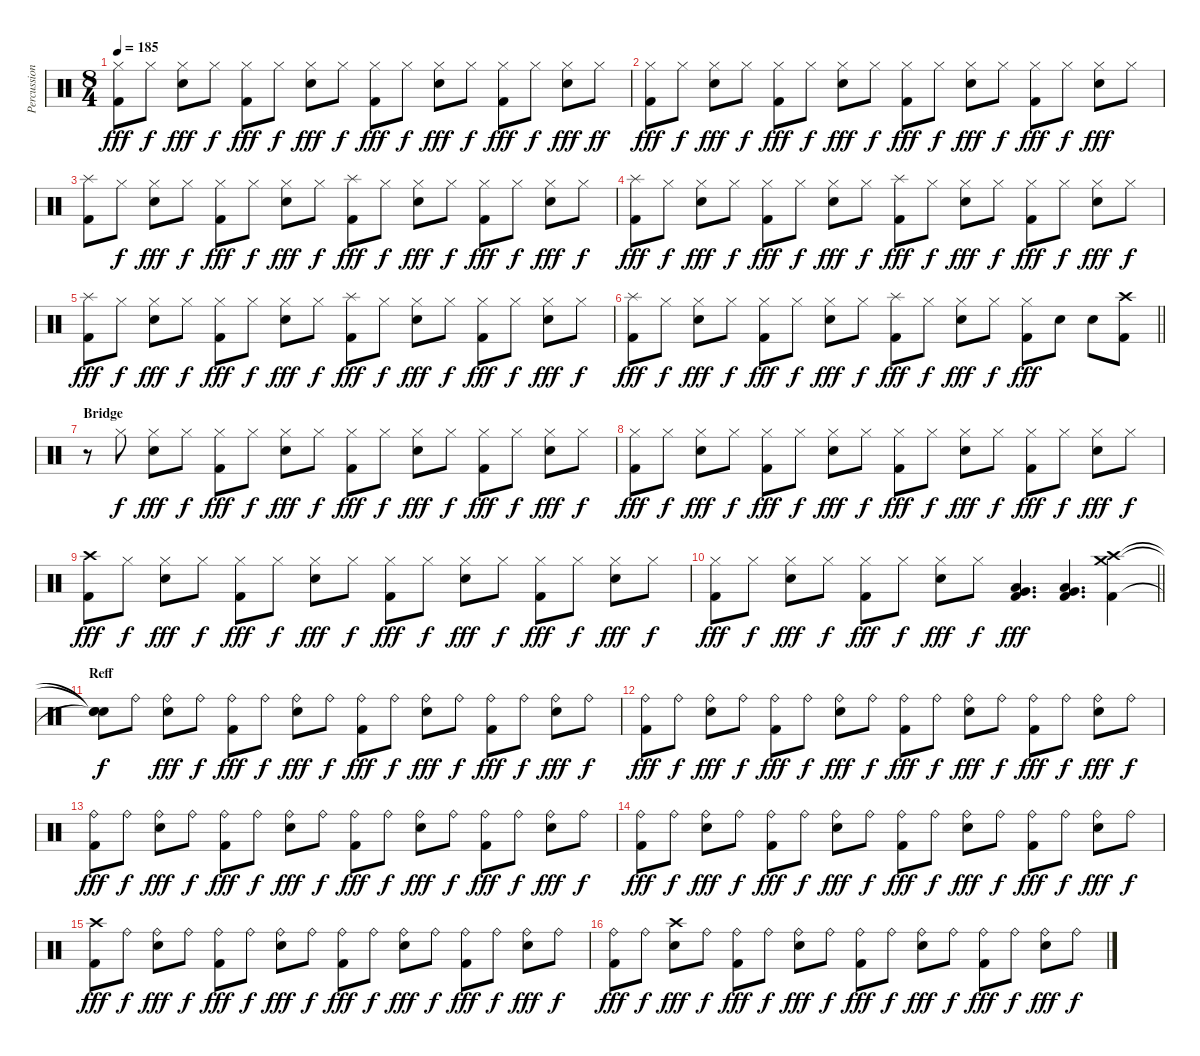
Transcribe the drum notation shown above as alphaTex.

\track ("Percussion" "Percussion") {instrument percussion}
\staff {score}
\articulation defaults
\ts (8 4)
\tempo 185
\clef neutral
\ks c
("Hi-Hat (closed)" "Kick (hit) 2").8{dy fff} "Hi-Hat (closed)".8{dy f} ("Hi-Hat (closed)" "Electric Snare (hit)").8{dy fff} "Hi-Hat (closed)".8{dy f} ("Hi-Hat (closed)" "Kick (hit) 2").8{dy fff} "Hi-Hat (closed)".8{dy f} ("Hi-Hat (closed)" "Electric Snare (hit)").8{dy fff} "Hi-Hat (closed)".8{dy f} ("Hi-Hat (closed)" "Kick (hit) 2").8{dy fff} "Hi-Hat (closed)".8{dy f} ("Hi-Hat (closed)" "Electric Snare (hit)").8{dy fff} "Hi-Hat (closed)".8{dy f} ("Hi-Hat (closed)" "Kick (hit) 2").8{dy fff} "Hi-Hat (closed)".8{dy f} ("Hi-Hat (closed)" "Electric Snare (hit)").8{dy fff} "Hi-Hat (closed)".8{dy ff} |
("Hi-Hat (closed)" "Kick (hit) 2").8{dy fff} "Hi-Hat (closed)".8{dy f} ("Hi-Hat (closed)" "Electric Snare (hit)").8{dy fff} "Hi-Hat (closed)".8{dy f} ("Hi-Hat (closed)" "Kick (hit) 2").8{dy fff} "Hi-Hat (closed)".8{dy f} ("Hi-Hat (closed)" "Electric Snare (hit)").8{dy fff} "Hi-Hat (closed)".8{dy f} ("Hi-Hat (closed)" "Kick (hit) 2").8{dy fff} "Hi-Hat (closed)".8{dy f} ("Hi-Hat (closed)" "Electric Snare (hit)").8{dy fff} "Hi-Hat (closed)".8{dy f} ("Hi-Hat (closed)" "Kick (hit) 2").8{dy fff} "Hi-Hat (closed)".8{dy f} ("Hi-Hat (closed)" "Electric Snare (hit)").8{dy fff} "Hi-Hat (closed)".8 |
("Splash (hit)" "Kick (hit) 2").8 "Hi-Hat (closed)".8{dy f} ("Hi-Hat (closed)" "Electric Snare (hit)").8{dy fff} "Hi-Hat (closed)".8{dy f} ("Hi-Hat (closed)" "Kick (hit) 2").8{dy fff} "Hi-Hat (closed)".8{dy f} ("Hi-Hat (closed)" "Electric Snare (hit)").8{dy fff} "Hi-Hat (closed)".8{dy f} ("Splash (hit)" "Kick (hit) 2").8{dy fff} "Hi-Hat (closed)".8{dy f} ("Hi-Hat (closed)" "Electric Snare (hit)").8{dy fff} "Hi-Hat (closed)".8{dy f} ("Hi-Hat (closed)" "Kick (hit) 2").8{dy fff} "Hi-Hat (closed)".8{dy f} ("Hi-Hat (closed)" "Electric Snare (hit)").8{dy fff} "Hi-Hat (closed)".8{dy f} |
("Splash (hit)" "Kick (hit) 2").8{dy fff} "Hi-Hat (closed)".8{dy f} ("Hi-Hat (closed)" "Electric Snare (hit)").8{dy fff} "Hi-Hat (closed)".8{dy f} ("Hi-Hat (closed)" "Kick (hit) 2").8{dy fff} "Hi-Hat (closed)".8{dy f} ("Hi-Hat (closed)" "Electric Snare (hit)").8{dy fff} "Hi-Hat (closed)".8{dy f} ("Splash (hit)" "Kick (hit) 2").8{dy fff} "Hi-Hat (closed)".8{dy f} ("Hi-Hat (closed)" "Electric Snare (hit)").8{dy fff} "Hi-Hat (closed)".8{dy f} ("Hi-Hat (closed)" "Kick (hit) 2").8{dy fff} "Hi-Hat (closed)".8{dy f} ("Hi-Hat (closed)" "Electric Snare (hit)").8{dy fff} "Hi-Hat (closed)".8{dy f} |
("Splash (hit)" "Kick (hit) 2").8{dy fff} "Hi-Hat (closed)".8{dy f} ("Hi-Hat (closed)" "Electric Snare (hit)").8{dy fff} "Hi-Hat (closed)".8{dy f} ("Hi-Hat (closed)" "Kick (hit) 2").8{dy fff} "Hi-Hat (closed)".8{dy f} ("Hi-Hat (closed)" "Electric Snare (hit)").8{dy fff} "Hi-Hat (closed)".8{dy f} ("Splash (hit)" "Kick (hit) 2").8{dy fff} "Hi-Hat (closed)".8{dy f} ("Hi-Hat (closed)" "Electric Snare (hit)").8{dy fff} "Hi-Hat (closed)".8{dy f} ("Hi-Hat (closed)" "Kick (hit) 2").8{dy fff} "Hi-Hat (closed)".8{dy f} ("Hi-Hat (closed)" "Electric Snare (hit)").8{dy fff} "Hi-Hat (closed)".8{dy f} |
\barLineRight lightlight
("Splash (hit)" "Kick (hit) 2").8{dy fff} "Hi-Hat (closed)".8{dy f} ("Hi-Hat (closed)" "Electric Snare (hit)").8{dy fff} "Hi-Hat (closed)".8{dy f} ("Hi-Hat (closed)" "Kick (hit) 2").8{dy fff} "Hi-Hat (closed)".8{dy f} ("Hi-Hat (closed)" "Electric Snare (hit)").8{dy fff} "Hi-Hat (closed)".8{dy f} ("Splash (hit)" "Kick (hit) 2").8{dy fff} "Hi-Hat (closed)".8{dy f} ("Hi-Hat (closed)" "Electric Snare (hit)").8{dy fff} "Hi-Hat (closed)".8{dy f} ("Hi-Hat (closed)" "Kick (hit) 2").8{dy fff} "Electric Snare (hit)".8 "Electric Snare (hit)".8 ("Crash high (hit)" "Kick (hit) 2").8 |
\section ("" "Bridge")
r.8 "Hi-Hat (closed)".8{dy f} ("Hi-Hat (closed)" "Electric Snare (hit)").8{dy fff} "Hi-Hat (closed)".8{dy f} ("Hi-Hat (closed)" "Kick (hit) 2").8{dy fff} "Hi-Hat (closed)".8{dy f} ("Hi-Hat (closed)" "Electric Snare (hit)").8{dy fff} "Hi-Hat (closed)".8{dy f} ("Hi-Hat (closed)" "Kick (hit) 2").8{dy fff} "Hi-Hat (closed)".8{dy f} ("Hi-Hat (closed)" "Electric Snare (hit)").8{dy fff} "Hi-Hat (closed)".8{dy f} ("Hi-Hat (closed)" "Kick (hit) 2").8{dy fff} "Hi-Hat (closed)".8{dy f} ("Hi-Hat (closed)" "Electric Snare (hit)").8{dy fff} "Hi-Hat (closed)".8{dy f} |
("Hi-Hat (closed)" "Kick (hit) 2").8{dy fff} "Hi-Hat (closed)".8{dy f} ("Hi-Hat (closed)" "Electric Snare (hit)").8{dy fff} "Hi-Hat (closed)".8{dy f} ("Hi-Hat (closed)" "Kick (hit) 2").8{dy fff} "Hi-Hat (closed)".8{dy f} ("Hi-Hat (closed)" "Electric Snare (hit)").8{dy fff} "Hi-Hat (closed)".8{dy f} ("Hi-Hat (closed)" "Kick (hit) 2").8{dy fff} "Hi-Hat (closed)".8{dy f} ("Hi-Hat (closed)" "Electric Snare (hit)").8{dy fff} "Hi-Hat (closed)".8{dy f} ("Hi-Hat (closed)" "Kick (hit) 2").8{dy fff} "Hi-Hat (closed)".8{dy f} ("Hi-Hat (closed)" "Electric Snare (hit)").8{dy fff} "Hi-Hat (closed)".8{dy f} |
("Crash high (hit)" "Kick (hit) 2").8{dy fff} "Hi-Hat (closed)".8{dy f} ("Hi-Hat (closed)" "Electric Snare (hit)").8{dy fff} "Hi-Hat (closed)".8{dy f} ("Hi-Hat (closed)" "Kick (hit) 2").8{dy fff} "Hi-Hat (closed)".8{dy f} ("Hi-Hat (closed)" "Electric Snare (hit)").8{dy fff} "Hi-Hat (closed)".8{dy f} ("Hi-Hat (closed)" "Kick (hit) 2").8{dy fff} "Hi-Hat (closed)".8{dy f} ("Hi-Hat (closed)" "Electric Snare (hit)").8{dy fff} "Hi-Hat (closed)".8{dy f} ("Hi-Hat (closed)" "Kick (hit) 2").8{dy fff} "Hi-Hat (closed)".8{dy f} ("Hi-Hat (closed)" "Electric Snare (hit)").8{dy fff} "Hi-Hat (closed)".8{dy f} |
\barLineRight lightlight
("Hi-Hat (closed)" "Kick (hit) 2").8{dy fff} "Hi-Hat (closed)".8{dy f} ("Hi-Hat (closed)" "Electric Snare (hit)").8{dy fff} "Hi-Hat (closed)".8{dy f} ("Hi-Hat (closed)" "Kick (hit) 2").8{dy fff} "Hi-Hat (closed)".8{dy f} ("Hi-Hat (closed)" "Electric Snare (hit)").8{dy fff} "Hi-Hat (closed)".8{dy f} ("Very Low Tom (hit)" "Low Floor Tom (hit)" "Kick (hit) 2").4{d dy fff} ("Very Low Tom (hit)" "Low Floor Tom (hit)" "Kick (hit) 2").4{d} ("Crash high (hit)" "Crash medium (hit)" "Kick (hit) 2").4 |
\section ("" "Reff")
("Snare (hit)"{t} "Snare (hit)"{t} "Snare (hit)"{t}).8{dy f} "Ride (bell)".8 ("Ride (bell)" "Electric Snare (hit)").8{dy fff} "Ride (bell)".8{dy f} ("Ride (bell)" "Kick (hit) 2").8{dy fff} "Ride (bell)".8{dy f} ("Ride (bell)" "Electric Snare (hit)").8{dy fff} "Ride (bell)".8{dy f} ("Ride (bell)" "Kick (hit) 2").8{dy fff} "Ride (bell)".8{dy f} ("Ride (bell)" "Electric Snare (hit)").8{dy fff} "Ride (bell)".8{dy f} ("Ride (bell)" "Kick (hit) 2").8{dy fff} "Ride (bell)".8{dy f} ("Ride (bell)" "Electric Snare (hit)").8{dy fff} "Ride (bell)".8{dy f} |
("Ride (bell)" "Kick (hit) 2").8{dy fff} "Ride (bell)".8{dy f} ("Ride (bell)" "Electric Snare (hit)").8{dy fff} "Ride (bell)".8{dy f} ("Ride (bell)" "Kick (hit) 2").8{dy fff} "Ride (bell)".8{dy f} ("Ride (bell)" "Electric Snare (hit)").8{dy fff} "Ride (bell)".8{dy f} ("Ride (bell)" "Kick (hit) 2").8{dy fff} "Ride (bell)".8{dy f} ("Ride (bell)" "Electric Snare (hit)").8{dy fff} "Ride (bell)".8{dy f} ("Ride (bell)" "Kick (hit) 2").8{dy fff} "Ride (bell)".8{dy f} ("Ride (bell)" "Electric Snare (hit)").8{dy fff} "Ride (bell)".8{dy f} |
("Ride (bell)" "Kick (hit) 2").8{dy fff} "Ride (bell)".8{dy f} ("Ride (bell)" "Electric Snare (hit)").8{dy fff} "Ride (bell)".8{dy f} ("Ride (bell)" "Kick (hit) 2").8{dy fff} "Ride (bell)".8{dy f} ("Ride (bell)" "Electric Snare (hit)").8{dy fff} "Ride (bell)".8{dy f} ("Ride (bell)" "Kick (hit) 2").8{dy fff} "Ride (bell)".8{dy f} ("Ride (bell)" "Electric Snare (hit)").8{dy fff} "Ride (bell)".8{dy f} ("Ride (bell)" "Kick (hit) 2").8{dy fff} "Ride (bell)".8{dy f} ("Ride (bell)" "Electric Snare (hit)").8{dy fff} "Ride (bell)".8{dy f} |
("Ride (bell)" "Kick (hit) 2").8{dy fff} "Ride (bell)".8{dy f} ("Ride (bell)" "Electric Snare (hit)").8{dy fff} "Ride (bell)".8{dy f} ("Ride (bell)" "Kick (hit) 2").8{dy fff} "Ride (bell)".8{dy f} ("Ride (bell)" "Electric Snare (hit)").8{dy fff} "Ride (bell)".8{dy f} ("Ride (bell)" "Kick (hit) 2").8{dy fff} "Ride (bell)".8{dy f} ("Ride (bell)" "Electric Snare (hit)").8{dy fff} "Ride (bell)".8{dy f} ("Ride (bell)" "Kick (hit) 2").8{dy fff} "Ride (bell)".8{dy f} ("Ride (bell)" "Electric Snare (hit)").8{dy fff} "Ride (bell)".8{dy f} |
("Crash high (hit)" "Kick (hit) 2").8{dy fff} "Ride (bell)".8{dy f} ("Ride (bell)" "Electric Snare (hit)").8{dy fff} "Ride (bell)".8{dy f} ("Ride (bell)" "Kick (hit) 2").8{dy fff} "Ride (bell)".8{dy f} ("Ride (bell)" "Electric Snare (hit)").8{dy fff} "Ride (bell)".8{dy f} ("Ride (bell)" "Kick (hit) 2").8{dy fff} "Ride (bell)".8{dy f} ("Ride (bell)" "Electric Snare (hit)").8{dy fff} "Ride (bell)".8{dy f} ("Ride (bell)" "Kick (hit) 2").8{dy fff} "Ride (bell)".8{dy f} ("Ride (bell)" "Electric Snare (hit)").8{dy fff} "Ride (bell)".8{dy f} |
("Ride (bell)" "Kick (hit) 2").8{dy fff} "Ride (bell)".8{dy f} ("Crash high (hit)" "Electric Snare (hit)").8{dy fff} "Ride (bell)".8{dy f} ("Ride (bell)" "Kick (hit) 2").8{dy fff} "Ride (bell)".8{dy f} ("Ride (bell)" "Electric Snare (hit)").8{dy fff} "Ride (bell)".8{dy f} ("Ride (bell)" "Kick (hit) 2").8{dy fff} "Ride (bell)".8{dy f} ("Ride (bell)" "Electric Snare (hit)").8{dy fff} "Ride (bell)".8{dy f} ("Ride (bell)" "Kick (hit) 2").8{dy fff} "Ride (bell)".8{dy f} ("Ride (bell)" "Electric Snare (hit)").8{dy fff} "Ride (bell)".8{dy f}
